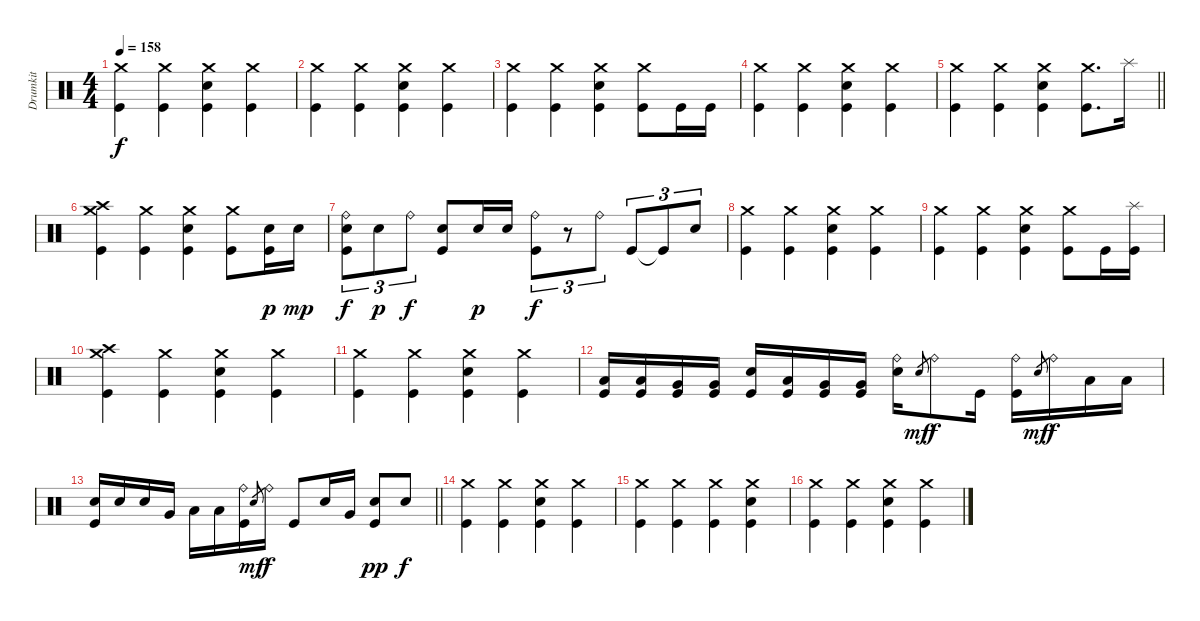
\track ("Drumkit" "Drumkit") {instrument percussion}
\staff {score}
\articulation defaults
\ts (4 4)
\tempo 158
\clef neutral
\ks c
("Crash medium (hit)" "Kick (hit)").4{dy f} ("Crash medium (hit)" "Kick (hit)").4 ("Crash medium (hit)" "Snare (hit) 2" "Kick (hit)").4 ("Crash medium (hit)" "Kick (hit)").4 |
("Crash medium (hit)" "Kick (hit)").4 ("Crash medium (hit)" "Kick (hit)").4 ("Crash medium (hit)" "Snare (hit) 2" "Kick (hit)").4 ("Crash medium (hit)" "Kick (hit)").4 |
("Crash medium (hit)" "Kick (hit)").4 ("Crash medium (hit)" "Kick (hit)").4 ("Crash medium (hit)" "Snare (hit) 2" "Kick (hit)").4 ("Crash medium (hit)" "Kick (hit)").8 "Kick (hit)".16 "Kick (hit)".16 |
("Crash medium (hit)" "Kick (hit)").4 ("Crash medium (hit)" "Kick (hit)").4 ("Crash medium (hit)" "Snare (hit) 2" "Kick (hit)").4 ("Crash medium (hit)" "Kick (hit)").4 |
\barLineRight lightlight
("Crash medium (hit)" "Kick (hit)").4 ("Crash medium (hit)" "Kick (hit)").4 ("Crash medium (hit)" "Snare (hit) 2" "Kick (hit)").4 ("Crash medium (hit)" "Kick (hit)").8{d} "Splash (hit)".16 |
("Crash medium (hit)" "Crash high (hit)" "Kick (hit)").4 ("Crash medium (hit)" "Kick (hit)").4 ("Crash medium (hit)" "Snare (hit) 2" "Kick (hit)").4 ("Crash medium (hit)" "Kick (hit)").8 ("Snare (hit) 2" "Kick (hit)").16{dy p} "Snare (hit) 2".16{dy mp} |
("Ride (bell)" "Snare (hit) 2" "Kick (hit)").8{tu (3 2) dy f} "Snare (hit) 2".8{tu (3 2) dy p} "Ride (bell)".8{tu (3 2) dy f} ("Snare (hit) 2" "Kick (hit)").8 "Snare (hit) 2".16{dy p} "Snare (hit) 2".16 ("Ride (bell)" "Kick (hit)").8{tu (3 2) dy f} r.8{tu (3 2)} "Ride (bell)".8{tu (3 2)} "Kick (hit)".8{tu (3 2)} "Kick (hit)"{t}.8{tu (3 2)} "Snare (hit) 2".8{tu (3 2)} |
("Crash medium (hit)" "Kick (hit)").4 ("Crash medium (hit)" "Kick (hit)").4 ("Crash medium (hit)" "Snare (hit) 2" "Kick (hit)").4 ("Crash medium (hit)" "Kick (hit)").4 |
("Crash medium (hit)" "Kick (hit)").4 ("Crash medium (hit)" "Kick (hit)").4 ("Crash medium (hit)" "Snare (hit) 2" "Kick (hit)").4 ("Crash medium (hit)" "Kick (hit)").8 "Kick (hit)".16 ("Splash (hit)" "Kick (hit)").16 |
("Crash medium (hit)" "Crash high (hit)" "Kick (hit)").4 ("Crash medium (hit)" "Kick (hit)").4 ("Crash medium (hit)" "Snare (hit) 2" "Kick (hit)").4 ("Crash medium (hit)" "Kick (hit)").4 |
("Crash medium (hit)" "Kick (hit)").4 ("Crash medium (hit)" "Kick (hit)").4 ("Crash medium (hit)" "Snare (hit) 2" "Kick (hit)").4 ("Crash medium (hit)" "Kick (hit)").4 |
("Low Tom (hit)" "Kick (hit)").16 ("Low Tom (hit)" "Kick (hit)").16 ("Very Low Tom (hit)" "Kick (hit)").16 ("Very Low Tom (hit)" "Kick (hit)").16 ("Snare (hit) 2" "Kick (hit)").16 ("Low Tom (hit)" "Kick (hit)").16 ("Very Low Tom (hit)" "Kick (hit)").16 ("Very Low Tom (hit)" "Kick (hit)").16 ("Ride (bell)" "Snare (hit) 2").16 "Snare (hit)".8{gr dy mf} "Ride (bell)".8{dy f} "Kick (hit)".16 ("Ride (bell)" "Kick (hit)").16 "Snare (hit)".8{gr dy mf} "Ride (bell)".16{dy f} "Low Tom (hit)".16 "Low Tom (hit)".16 |
\barLineRight lightlight
("Snare (hit) 2" "Kick (hit)").16 "Snare (hit) 2".16 "Snare (hit) 2".16 "Very Low Tom (hit)".16 "Low Floor Tom (hit)".16 "Low Floor Tom (hit)".16 ("Ride (bell)" "Kick (hit)").16 "Snare (hit)".8{gr dy mf} "Ride (bell)".16{dy f} "Kick (hit)".8 "Snare (hit) 2".16 "Very Low Tom (hit)".16 ("Snare (hit) 2" "Kick (hit)").8{dy pp} "Snare (hit) 2".8{dy f} |
\section ("" "")
("Crash medium (hit)" "Kick (hit)").4 ("Crash medium (hit)" "Kick (hit)").4 ("Crash medium (hit)" "Snare (hit) 2" "Kick (hit)").4 ("Crash medium (hit)" "Kick (hit)").4 |
("Crash medium (hit)" "Kick (hit)").4 ("Crash medium (hit)" "Kick (hit)").4 ("Crash medium (hit)" "Kick (hit)").4 ("Crash medium (hit)" "Snare (hit) 2" "Kick (hit)").4 |
("Crash medium (hit)" "Kick (hit)").4 ("Crash medium (hit)" "Kick (hit)").4 ("Crash medium (hit)" "Snare (hit) 2" "Kick (hit)").4 ("Crash medium (hit)" "Kick (hit)").4
